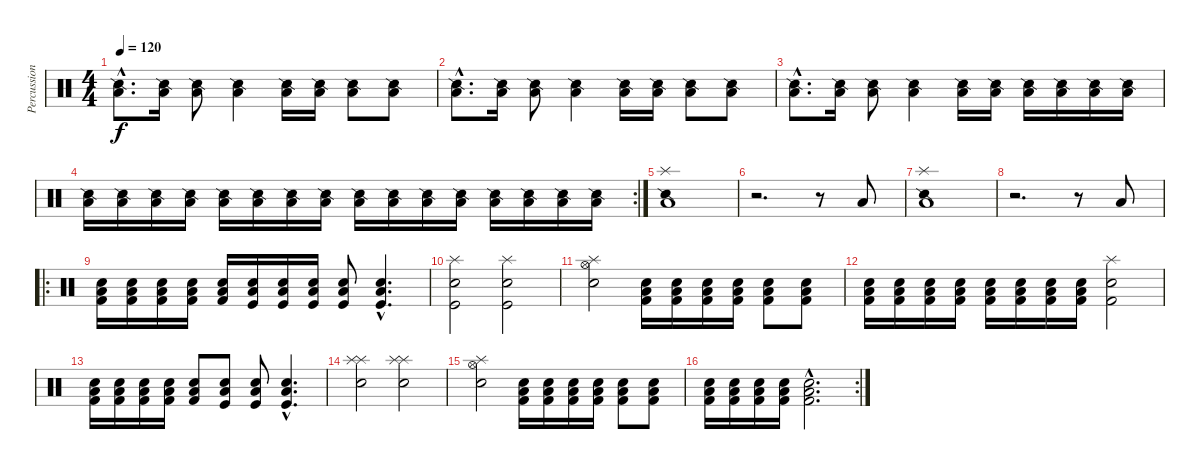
\track ("Percussion" "Percussion") {instrument percussion}
\staff {score}
\articulation defaults
\ts (4 4)
\tempo 120
\clef neutral
\ks c
("Low Floor Tom (hit)"{hac} "Snare (side stick) 2"{hac}).8{d dy f balance 13} ("Low Floor Tom (hit)" "Snare (side stick) 2").16 ("Low Floor Tom (hit)" "Snare (side stick) 2").8 ("Low Floor Tom (hit)" "Snare (side stick) 2").4 ("Low Floor Tom (hit)" "Snare (side stick) 2").16 ("Low Floor Tom (hit)" "Snare (side stick) 2").16 ("Low Floor Tom (hit)" "Snare (side stick) 2").8 ("Low Floor Tom (hit)" "Snare (side stick) 2").8 |
("Low Floor Tom (hit)"{hac} "Snare (side stick) 2"{hac}).8{d balance 13} ("Low Floor Tom (hit)" "Snare (side stick) 2").16 ("Low Floor Tom (hit)" "Snare (side stick) 2").8 ("Low Floor Tom (hit)" "Snare (side stick) 2").4 ("Low Floor Tom (hit)" "Snare (side stick) 2").16 ("Low Floor Tom (hit)" "Snare (side stick) 2").16 ("Low Floor Tom (hit)" "Snare (side stick) 2").8 ("Low Floor Tom (hit)" "Snare (side stick) 2").8 |
("Low Floor Tom (hit)"{hac} "Snare (side stick) 2"{hac}).8{d} ("Low Floor Tom (hit)" "Snare (side stick) 2").16 ("Low Floor Tom (hit)" "Snare (side stick) 2").8 ("Low Floor Tom (hit)" "Snare (side stick) 2").4 ("Low Floor Tom (hit)" "Snare (side stick) 2").16 ("Low Floor Tom (hit)" "Snare (side stick) 2").16 ("Low Floor Tom (hit)" "Snare (side stick) 2").16 ("Low Floor Tom (hit)" "Snare (side stick) 2").16 ("Low Floor Tom (hit)" "Snare (side stick) 2").16 ("Low Floor Tom (hit)" "Snare (side stick) 2").16 |
\rc 2
("Low Floor Tom (hit)" "Snare (side stick) 2").16 ("Low Floor Tom (hit)" "Snare (side stick) 2").16 ("Low Floor Tom (hit)" "Snare (side stick) 2").16 ("Low Floor Tom (hit)" "Snare (side stick) 2").16 ("Low Floor Tom (hit)" "Snare (side stick) 2").16 ("Low Floor Tom (hit)" "Snare (side stick) 2").16 ("Low Floor Tom (hit)" "Snare (side stick) 2").16 ("Low Floor Tom (hit)" "Snare (side stick) 2").16 ("Low Floor Tom (hit)" "Snare (side stick) 2").16 ("Low Floor Tom (hit)" "Snare (side stick) 2").16 ("Low Floor Tom (hit)" "Snare (side stick) 2").16 ("Low Floor Tom (hit)" "Snare (side stick) 2").16 ("Low Floor Tom (hit)" "Snare (side stick) 2").16 ("Low Floor Tom (hit)" "Snare (side stick) 2").16 ("Low Floor Tom (hit)" "Snare (side stick) 2").16 ("Low Floor Tom (hit)" "Snare (side stick) 2").16 |
("Splash (hit)" "Low Floor Tom (hit)" "Snare (side stick) 2").1{balance 8} |
r.2{d} r.8 "Low Floor Tom (hit)".8 |
("Splash (hit)" "Low Floor Tom (hit)" "Snare (side stick) 2").1{balance 8} |
r.2{d} r.8 "Low Floor Tom (hit)".8 |
\ro
("Low Floor Tom (hit)" "Kick (hit) 2" "Electric Snare (hit)").16 ("Low Floor Tom (hit)" "Kick (hit) 2" "Electric Snare (hit)").16 ("Low Floor Tom (hit)" "Kick (hit) 2" "Electric Snare (hit)").16 ("Low Floor Tom (hit)" "Kick (hit) 2" "Electric Snare (hit)").16 ("Low Floor Tom (hit)" "Kick (hit) 2" "Electric Snare (hit)").16 ("Low Floor Tom (hit)" "Kick (hit)" "Electric Snare (hit)").16 ("Low Floor Tom (hit)" "Kick (hit)" "Electric Snare (hit)").16 ("Low Floor Tom (hit)" "Kick (hit)" "Electric Snare (hit)").16 ("Low Floor Tom (hit)" "Kick (hit)" "Electric Snare (hit)").8 ("Low Floor Tom (hit)"{hac} "Kick (hit)"{hac} "Electric Snare (hit)"{hac}).4{d} |
("Splash (hit)" "Kick (hit)" "Electric Snare (hit)").2 ("Splash (hit)" "Kick (hit)" "Electric Snare (hit)").2 |
("Splash (hit)" "Hi-Hat (open)" "Electric Snare (hit)").2 ("Low Floor Tom (hit)" "Kick (hit) 2" "Electric Snare (hit)").16 ("Low Floor Tom (hit)" "Kick (hit) 2" "Electric Snare (hit)").16 ("Low Floor Tom (hit)" "Kick (hit) 2" "Electric Snare (hit)").16 ("Low Floor Tom (hit)" "Kick (hit) 2" "Electric Snare (hit)").16 ("Low Floor Tom (hit)" "Kick (hit) 2" "Electric Snare (hit)").8 ("Low Floor Tom (hit)" "Kick (hit) 2" "Electric Snare (hit)").8 |
("Low Floor Tom (hit)" "Kick (hit) 2" "Electric Snare (hit)").16 ("Low Floor Tom (hit)" "Kick (hit) 2" "Electric Snare (hit)").16 ("Low Floor Tom (hit)" "Kick (hit) 2" "Electric Snare (hit)").16 ("Low Floor Tom (hit)" "Kick (hit) 2" "Electric Snare (hit)").16 ("Low Floor Tom (hit)" "Kick (hit) 2" "Electric Snare (hit)").16 ("Low Floor Tom (hit)" "Kick (hit) 2" "Electric Snare (hit)").16 ("Low Floor Tom (hit)" "Kick (hit) 2" "Electric Snare (hit)").16 ("Low Floor Tom (hit)" "Kick (hit) 2" "Electric Snare (hit)").16 ("Splash (hit)" "Kick (hit) 2" "Electric Snare (hit)").2 |
("Low Floor Tom (hit)" "Kick (hit) 2" "Electric Snare (hit)").16 ("Low Floor Tom (hit)" "Kick (hit) 2" "Electric Snare (hit)").16 ("Low Floor Tom (hit)" "Kick (hit) 2" "Electric Snare (hit)").16 ("Low Floor Tom (hit)" "Kick (hit) 2" "Electric Snare (hit)").16 ("Low Floor Tom (hit)" "Kick (hit) 2" "Electric Snare (hit)").8 ("Low Floor Tom (hit)" "Kick (hit)" "Electric Snare (hit)").8 ("Low Floor Tom (hit)" "Kick (hit)" "Electric Snare (hit)").8 ("Low Floor Tom (hit)"{hac} "Kick (hit)"{hac} "Electric Snare (hit)"{hac}).4{d} |
("Splash (hit)" "Splash (hit)" "Electric Snare (hit)").2 ("Splash (hit)" "Splash (hit)" "Electric Snare (hit)").2 |
("Splash (hit)" "Hi-Hat (open)" "Electric Snare (hit)").2 ("Low Floor Tom (hit)" "Kick (hit) 2" "Electric Snare (hit)").16 ("Low Floor Tom (hit)" "Kick (hit) 2" "Electric Snare (hit)").16 ("Low Floor Tom (hit)" "Kick (hit) 2" "Electric Snare (hit)").16 ("Low Floor Tom (hit)" "Kick (hit) 2" "Electric Snare (hit)").16 ("Low Floor Tom (hit)" "Kick (hit) 2" "Electric Snare (hit)").8 ("Low Floor Tom (hit)" "Kick (hit) 2" "Electric Snare (hit)").8 |
\rc 2
("Low Floor Tom (hit)" "Kick (hit) 2" "Electric Snare (hit)").16 ("Low Floor Tom (hit)" "Kick (hit) 2" "Electric Snare (hit)").16 ("Low Floor Tom (hit)" "Kick (hit) 2" "Electric Snare (hit)").16 ("Low Floor Tom (hit)" "Kick (hit) 2" "Electric Snare (hit)").16 ("Low Floor Tom (hit)"{hac} "Kick (hit) 2"{hac} "Electric Snare (hit)"{hac}).2{d}
